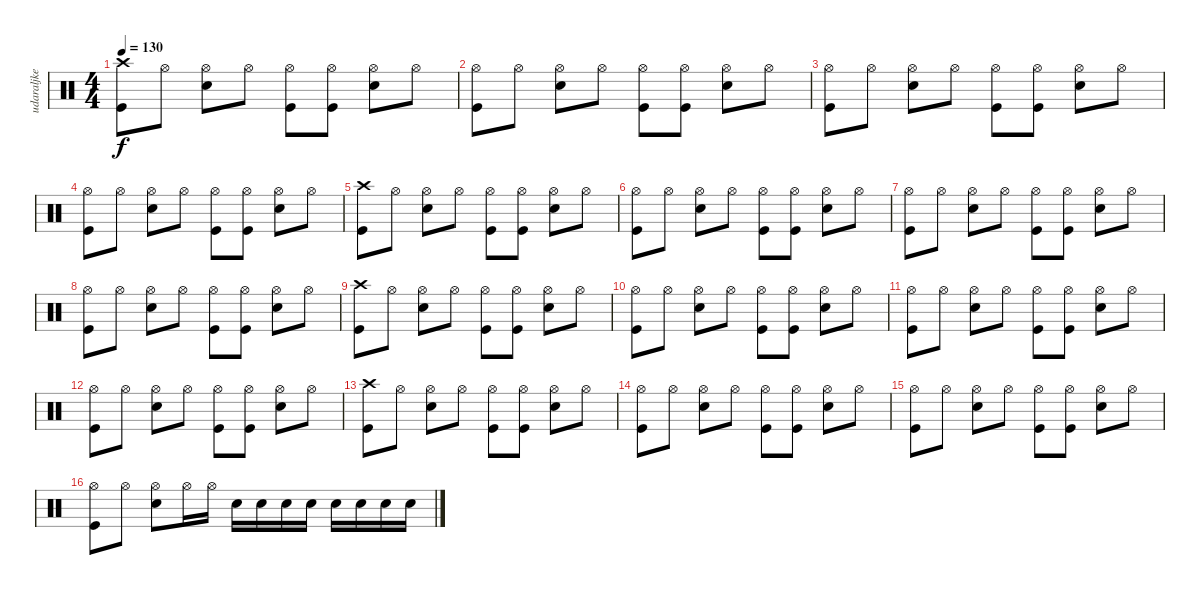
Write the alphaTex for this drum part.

\track ("udaraljke" "udaraljke") {instrument percussion}
\staff {score}
\articulation defaults
\ts (4 4)
\tempo 130
\clef neutral
\ks c
("Crash high (hit)" "Kick (hit)").8{dy f} "Hi-Hat (open)".8 ("Hi-Hat (open)" "Electric Snare (hit)").8 "Hi-Hat (open)".8 ("Hi-Hat (open)" "Kick (hit)").8 ("Hi-Hat (open)" "Kick (hit)").8 ("Hi-Hat (open)" "Electric Snare (hit)").8 "Hi-Hat (open)".8 |
("Hi-Hat (open)" "Kick (hit)").8 "Hi-Hat (open)".8 ("Hi-Hat (open)" "Electric Snare (hit)").8 "Hi-Hat (open)".8 ("Hi-Hat (open)" "Kick (hit)").8 ("Hi-Hat (open)" "Kick (hit)").8 ("Hi-Hat (open)" "Electric Snare (hit)").8 "Hi-Hat (open)".8 |
("Hi-Hat (open)" "Kick (hit)").8 "Hi-Hat (open)".8 ("Hi-Hat (open)" "Electric Snare (hit)").8 "Hi-Hat (open)".8 ("Hi-Hat (open)" "Kick (hit)").8 ("Hi-Hat (open)" "Kick (hit)").8 ("Hi-Hat (open)" "Electric Snare (hit)").8 "Hi-Hat (open)".8 |
("Hi-Hat (open)" "Kick (hit)").8 "Hi-Hat (open)".8 ("Hi-Hat (open)" "Electric Snare (hit)").8 "Hi-Hat (open)".8 ("Hi-Hat (open)" "Kick (hit)").8 ("Hi-Hat (open)" "Kick (hit)").8 ("Hi-Hat (open)" "Electric Snare (hit)").8 "Hi-Hat (open)".8 |
("Crash high (hit)" "Kick (hit)").8 "Hi-Hat (open)".8 ("Hi-Hat (open)" "Electric Snare (hit)").8 "Hi-Hat (open)".8 ("Hi-Hat (open)" "Kick (hit)").8 ("Hi-Hat (open)" "Kick (hit)").8 ("Hi-Hat (open)" "Electric Snare (hit)").8 "Hi-Hat (open)".8 |
("Hi-Hat (open)" "Kick (hit)").8 "Hi-Hat (open)".8 ("Hi-Hat (open)" "Electric Snare (hit)").8 "Hi-Hat (open)".8 ("Hi-Hat (open)" "Kick (hit)").8 ("Hi-Hat (open)" "Kick (hit)").8 ("Hi-Hat (open)" "Electric Snare (hit)").8 "Hi-Hat (open)".8 |
("Hi-Hat (open)" "Kick (hit)").8 "Hi-Hat (open)".8 ("Hi-Hat (open)" "Electric Snare (hit)").8 "Hi-Hat (open)".8 ("Hi-Hat (open)" "Kick (hit)").8 ("Hi-Hat (open)" "Kick (hit)").8 ("Hi-Hat (open)" "Electric Snare (hit)").8 "Hi-Hat (open)".8 |
("Hi-Hat (open)" "Kick (hit)").8 "Hi-Hat (open)".8 ("Hi-Hat (open)" "Electric Snare (hit)").8 "Hi-Hat (open)".8 ("Hi-Hat (open)" "Kick (hit)").8 ("Hi-Hat (open)" "Kick (hit)").8 ("Hi-Hat (open)" "Electric Snare (hit)").8 "Hi-Hat (open)".8 |
("Crash high (hit)" "Kick (hit)").8 "Hi-Hat (open)".8 ("Hi-Hat (open)" "Electric Snare (hit)").8 "Hi-Hat (open)".8 ("Hi-Hat (open)" "Kick (hit)").8 ("Hi-Hat (open)" "Kick (hit)").8 ("Hi-Hat (open)" "Electric Snare (hit)").8 "Hi-Hat (open)".8 |
("Hi-Hat (open)" "Kick (hit)").8 "Hi-Hat (open)".8 ("Hi-Hat (open)" "Electric Snare (hit)").8 "Hi-Hat (open)".8 ("Hi-Hat (open)" "Kick (hit)").8 ("Hi-Hat (open)" "Kick (hit)").8 ("Hi-Hat (open)" "Electric Snare (hit)").8 "Hi-Hat (open)".8 |
("Hi-Hat (open)" "Kick (hit)").8 "Hi-Hat (open)".8 ("Hi-Hat (open)" "Electric Snare (hit)").8 "Hi-Hat (open)".8 ("Hi-Hat (open)" "Kick (hit)").8 ("Hi-Hat (open)" "Kick (hit)").8 ("Hi-Hat (open)" "Electric Snare (hit)").8 "Hi-Hat (open)".8 |
("Hi-Hat (open)" "Kick (hit)").8 "Hi-Hat (open)".8 ("Hi-Hat (open)" "Electric Snare (hit)").8 "Hi-Hat (open)".8 ("Hi-Hat (open)" "Kick (hit)").8 ("Hi-Hat (open)" "Kick (hit)").8 ("Hi-Hat (open)" "Electric Snare (hit)").8 "Hi-Hat (open)".8 |
("Crash high (hit)" "Kick (hit)").8 "Hi-Hat (open)".8 ("Hi-Hat (open)" "Electric Snare (hit)").8 "Hi-Hat (open)".8 ("Hi-Hat (open)" "Kick (hit)").8 ("Hi-Hat (open)" "Kick (hit)").8 ("Hi-Hat (open)" "Electric Snare (hit)").8 "Hi-Hat (open)".8 |
("Hi-Hat (open)" "Kick (hit)").8 "Hi-Hat (open)".8 ("Hi-Hat (open)" "Electric Snare (hit)").8 "Hi-Hat (open)".8 ("Hi-Hat (open)" "Kick (hit)").8 ("Hi-Hat (open)" "Kick (hit)").8 ("Hi-Hat (open)" "Electric Snare (hit)").8 "Hi-Hat (open)".8 |
("Hi-Hat (open)" "Kick (hit)").8 "Hi-Hat (open)".8 ("Hi-Hat (open)" "Electric Snare (hit)").8 "Hi-Hat (open)".8 ("Hi-Hat (open)" "Kick (hit)").8 ("Hi-Hat (open)" "Kick (hit)").8 ("Hi-Hat (open)" "Electric Snare (hit)").8 "Hi-Hat (open)".8 |
("Hi-Hat (open)" "Kick (hit)").8 "Hi-Hat (open)".8 ("Hi-Hat (open)" "Electric Snare (hit)").8 "Hi-Hat (open)".16 "Hi-Hat (open)".16 "Electric Snare (hit)".16 "Electric Snare (hit)".16 "Electric Snare (hit)".16 "Electric Snare (hit)".16 "Electric Snare (hit)".16 "Electric Snare (hit)".16 "Electric Snare (hit)".16 "Electric Snare (hit)".16
